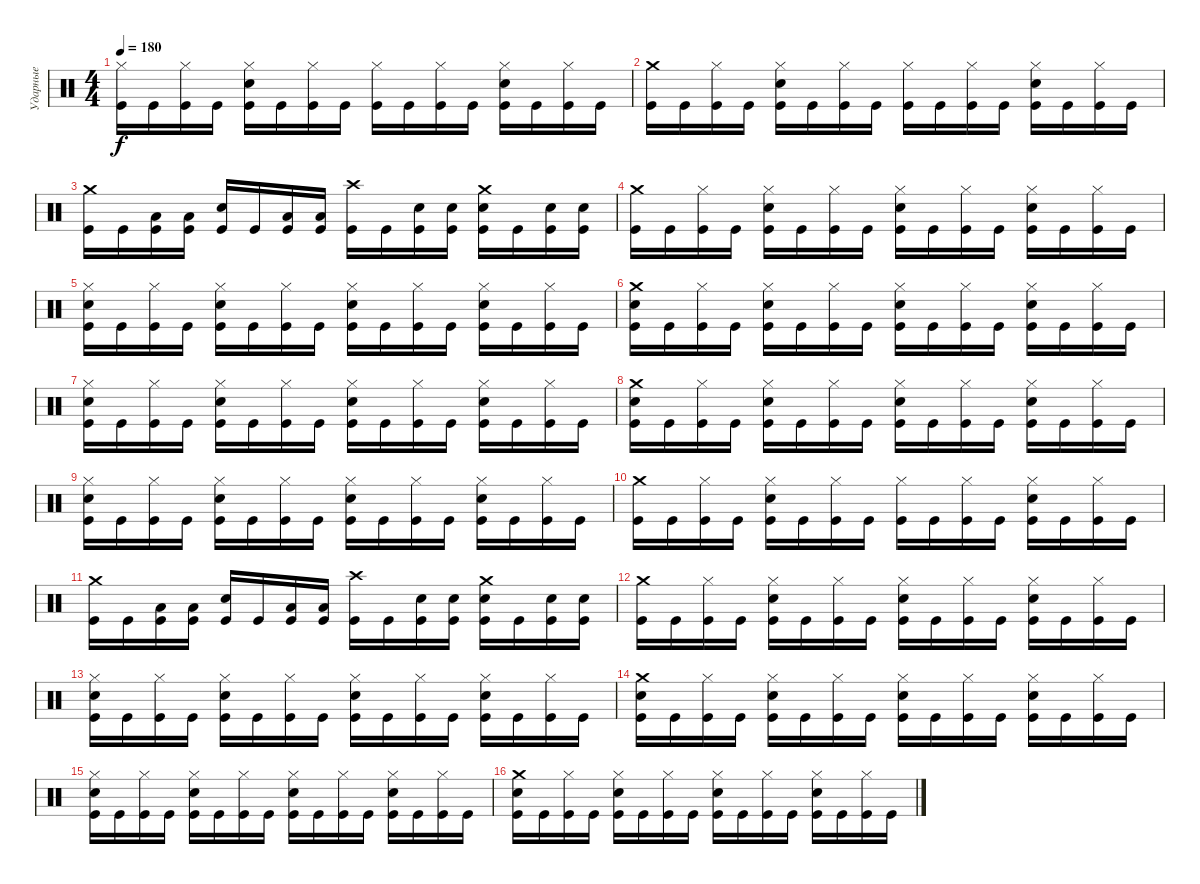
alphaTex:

\track ("Ударные" "Ударные") {instrument percussion}
\staff {score}
\articulation defaults
\ts (4 4)
\tempo 180
\clef neutral
\ks c
("Hi-Hat (closed)" "Kick (hit)").16{dy f} "Kick (hit)".16 ("Hi-Hat (closed)" "Kick (hit)").16 "Kick (hit)".16 ("Hi-Hat (closed)" "Electric Snare (hit)" "Kick (hit)").16 "Kick (hit)".16 ("Hi-Hat (closed)" "Kick (hit)").16 "Kick (hit)".16 ("Hi-Hat (closed)" "Kick (hit)").16 "Kick (hit)".16 ("Hi-Hat (closed)" "Kick (hit)").16 "Kick (hit)".16 ("Hi-Hat (closed)" "Electric Snare (hit)" "Kick (hit)").16 "Kick (hit)".16 ("Hi-Hat (closed)" "Kick (hit)").16 "Kick (hit)".16 |
("Crash medium (hit)" "Kick (hit)").16 "Kick (hit)".16 ("Hi-Hat (closed)" "Kick (hit)").16 "Kick (hit)".16 ("Hi-Hat (closed)" "Electric Snare (hit)" "Kick (hit)").16 "Kick (hit)".16 ("Hi-Hat (closed)" "Kick (hit)").16 "Kick (hit)".16 ("Hi-Hat (closed)" "Kick (hit)").16 "Kick (hit)".16 ("Hi-Hat (closed)" "Kick (hit)").16 "Kick (hit)".16 ("Hi-Hat (closed)" "Electric Snare (hit)" "Kick (hit)").16 "Kick (hit)".16 ("Hi-Hat (closed)" "Kick (hit)").16 "Kick (hit)".16 |
("Crash medium (hit)" "Kick (hit)").16 "Kick (hit)".16 ("Low Tom (hit)" "Kick (hit)").16 ("Low Tom (hit)" "Kick (hit)").16 ("Electric Snare (hit)" "Kick (hit)").16 "Kick (hit)".16 ("Low Tom (hit)" "Kick (hit)").16 ("Low Tom (hit)" "Kick (hit)").16 ("Crash high (hit)" "Kick (hit)").16 "Kick (hit)".16 ("Electric Snare (hit)" "Kick (hit)").16 ("Electric Snare (hit)" "Kick (hit)").16 ("Crash medium (hit)" "Electric Snare (hit)" "Kick (hit)").16 "Kick (hit)".16 ("Electric Snare (hit)" "Kick (hit)").16 ("Electric Snare (hit)" "Kick (hit)").16 |
("Crash medium (hit)" "Kick (hit)").16 "Kick (hit)".16 ("Hi-Hat (closed)" "Kick (hit)").16 "Kick (hit)".16 ("Hi-Hat (closed)" "Electric Snare (hit)" "Kick (hit)").16 "Kick (hit)".16 ("Hi-Hat (closed)" "Kick (hit)").16 "Kick (hit)".16 ("Hi-Hat (closed)" "Electric Snare (hit)" "Kick (hit)").16 "Kick (hit)".16 ("Hi-Hat (closed)" "Kick (hit)").16 "Kick (hit)".16 ("Hi-Hat (closed)" "Electric Snare (hit)" "Kick (hit)").16 "Kick (hit)".16 ("Hi-Hat (closed)" "Kick (hit)").16 "Kick (hit)".16 |
("Hi-Hat (closed)" "Electric Snare (hit)" "Kick (hit)").16 "Kick (hit)".16 ("Hi-Hat (closed)" "Kick (hit)").16 "Kick (hit)".16 ("Hi-Hat (closed)" "Electric Snare (hit)" "Kick (hit)").16 "Kick (hit)".16 ("Hi-Hat (closed)" "Kick (hit)").16 "Kick (hit)".16 ("Hi-Hat (closed)" "Electric Snare (hit)" "Kick (hit)").16 "Kick (hit)".16 ("Hi-Hat (closed)" "Kick (hit)").16 "Kick (hit)".16 ("Hi-Hat (closed)" "Electric Snare (hit)" "Kick (hit)").16 "Kick (hit)".16 ("Hi-Hat (closed)" "Kick (hit)").16 "Kick (hit)".16 |
("Crash medium (hit)" "Electric Snare (hit)" "Kick (hit)").16 "Kick (hit)".16 ("Hi-Hat (closed)" "Kick (hit)").16 "Kick (hit)".16 ("Hi-Hat (closed)" "Electric Snare (hit)" "Kick (hit)").16 "Kick (hit)".16 ("Hi-Hat (closed)" "Kick (hit)").16 "Kick (hit)".16 ("Hi-Hat (closed)" "Electric Snare (hit)" "Kick (hit)").16 "Kick (hit)".16 ("Hi-Hat (closed)" "Kick (hit)").16 "Kick (hit)".16 ("Hi-Hat (closed)" "Electric Snare (hit)" "Kick (hit)").16 "Kick (hit)".16 ("Hi-Hat (closed)" "Kick (hit)").16 "Kick (hit)".16 |
("Hi-Hat (closed)" "Electric Snare (hit)" "Kick (hit)").16 "Kick (hit)".16 ("Hi-Hat (closed)" "Kick (hit)").16 "Kick (hit)".16 ("Hi-Hat (closed)" "Electric Snare (hit)" "Kick (hit)").16 "Kick (hit)".16 ("Hi-Hat (closed)" "Kick (hit)").16 "Kick (hit)".16 ("Hi-Hat (closed)" "Electric Snare (hit)" "Kick (hit)").16 "Kick (hit)".16 ("Hi-Hat (closed)" "Kick (hit)").16 "Kick (hit)".16 ("Hi-Hat (closed)" "Electric Snare (hit)" "Kick (hit)").16 "Kick (hit)".16 ("Hi-Hat (closed)" "Kick (hit)").16 "Kick (hit)".16 |
("Crash medium (hit)" "Electric Snare (hit)" "Kick (hit)").16 "Kick (hit)".16 ("Hi-Hat (closed)" "Kick (hit)").16 "Kick (hit)".16 ("Hi-Hat (closed)" "Electric Snare (hit)" "Kick (hit)").16 "Kick (hit)".16 ("Hi-Hat (closed)" "Kick (hit)").16 "Kick (hit)".16 ("Hi-Hat (closed)" "Electric Snare (hit)" "Kick (hit)").16 "Kick (hit)".16 ("Hi-Hat (closed)" "Kick (hit)").16 "Kick (hit)".16 ("Hi-Hat (closed)" "Electric Snare (hit)" "Kick (hit)").16 "Kick (hit)".16 ("Hi-Hat (closed)" "Kick (hit)").16 "Kick (hit)".16 |
("Hi-Hat (closed)" "Electric Snare (hit)" "Kick (hit)").16 "Kick (hit)".16 ("Hi-Hat (closed)" "Kick (hit)").16 "Kick (hit)".16 ("Hi-Hat (closed)" "Electric Snare (hit)" "Kick (hit)").16 "Kick (hit)".16 ("Hi-Hat (closed)" "Kick (hit)").16 "Kick (hit)".16 ("Hi-Hat (closed)" "Electric Snare (hit)" "Kick (hit)").16 "Kick (hit)".16 ("Hi-Hat (closed)" "Kick (hit)").16 "Kick (hit)".16 ("Hi-Hat (closed)" "Electric Snare (hit)" "Kick (hit)").16 "Kick (hit)".16 ("Hi-Hat (closed)" "Kick (hit)").16 "Kick (hit)".16 |
("Crash medium (hit)" "Kick (hit)").16 "Kick (hit)".16 ("Hi-Hat (closed)" "Kick (hit)").16 "Kick (hit)".16 ("Hi-Hat (closed)" "Electric Snare (hit)" "Kick (hit)").16 "Kick (hit)".16 ("Hi-Hat (closed)" "Kick (hit)").16 "Kick (hit)".16 ("Hi-Hat (closed)" "Kick (hit)").16 "Kick (hit)".16 ("Hi-Hat (closed)" "Kick (hit)").16 "Kick (hit)".16 ("Hi-Hat (closed)" "Electric Snare (hit)" "Kick (hit)").16 "Kick (hit)".16 ("Hi-Hat (closed)" "Kick (hit)").16 "Kick (hit)".16 |
("Crash medium (hit)" "Kick (hit)").16 "Kick (hit)".16 ("Low Tom (hit)" "Kick (hit)").16 ("Low Tom (hit)" "Kick (hit)").16 ("Electric Snare (hit)" "Kick (hit)").16 "Kick (hit)".16 ("Low Tom (hit)" "Kick (hit)").16 ("Low Tom (hit)" "Kick (hit)").16 ("Crash high (hit)" "Kick (hit)").16 "Kick (hit)".16 ("Electric Snare (hit)" "Kick (hit)").16 ("Electric Snare (hit)" "Kick (hit)").16 ("Crash medium (hit)" "Electric Snare (hit)" "Kick (hit)").16 "Kick (hit)".16 ("Electric Snare (hit)" "Kick (hit)").16 ("Electric Snare (hit)" "Kick (hit)").16 |
("Crash medium (hit)" "Kick (hit)").16 "Kick (hit)".16 ("Hi-Hat (closed)" "Kick (hit)").16 "Kick (hit)".16 ("Hi-Hat (closed)" "Electric Snare (hit)" "Kick (hit)").16 "Kick (hit)".16 ("Hi-Hat (closed)" "Kick (hit)").16 "Kick (hit)".16 ("Hi-Hat (closed)" "Electric Snare (hit)" "Kick (hit)").16 "Kick (hit)".16 ("Hi-Hat (closed)" "Kick (hit)").16 "Kick (hit)".16 ("Hi-Hat (closed)" "Electric Snare (hit)" "Kick (hit)").16 "Kick (hit)".16 ("Hi-Hat (closed)" "Kick (hit)").16 "Kick (hit)".16 |
("Hi-Hat (closed)" "Electric Snare (hit)" "Kick (hit)").16 "Kick (hit)".16 ("Hi-Hat (closed)" "Kick (hit)").16 "Kick (hit)".16 ("Hi-Hat (closed)" "Electric Snare (hit)" "Kick (hit)").16 "Kick (hit)".16 ("Hi-Hat (closed)" "Kick (hit)").16 "Kick (hit)".16 ("Hi-Hat (closed)" "Electric Snare (hit)" "Kick (hit)").16 "Kick (hit)".16 ("Hi-Hat (closed)" "Kick (hit)").16 "Kick (hit)".16 ("Hi-Hat (closed)" "Electric Snare (hit)" "Kick (hit)").16 "Kick (hit)".16 ("Hi-Hat (closed)" "Kick (hit)").16 "Kick (hit)".16 |
("Crash medium (hit)" "Electric Snare (hit)" "Kick (hit)").16 "Kick (hit)".16 ("Hi-Hat (closed)" "Kick (hit)").16 "Kick (hit)".16 ("Hi-Hat (closed)" "Electric Snare (hit)" "Kick (hit)").16 "Kick (hit)".16 ("Hi-Hat (closed)" "Kick (hit)").16 "Kick (hit)".16 ("Hi-Hat (closed)" "Electric Snare (hit)" "Kick (hit)").16 "Kick (hit)".16 ("Hi-Hat (closed)" "Kick (hit)").16 "Kick (hit)".16 ("Hi-Hat (closed)" "Electric Snare (hit)" "Kick (hit)").16 "Kick (hit)".16 ("Hi-Hat (closed)" "Kick (hit)").16 "Kick (hit)".16 |
("Hi-Hat (closed)" "Electric Snare (hit)" "Kick (hit)").16 "Kick (hit)".16 ("Hi-Hat (closed)" "Kick (hit)").16 "Kick (hit)".16 ("Hi-Hat (closed)" "Electric Snare (hit)" "Kick (hit)").16 "Kick (hit)".16 ("Hi-Hat (closed)" "Kick (hit)").16 "Kick (hit)".16 ("Hi-Hat (closed)" "Electric Snare (hit)" "Kick (hit)").16 "Kick (hit)".16 ("Hi-Hat (closed)" "Kick (hit)").16 "Kick (hit)".16 ("Hi-Hat (closed)" "Electric Snare (hit)" "Kick (hit)").16 "Kick (hit)".16 ("Hi-Hat (closed)" "Kick (hit)").16 "Kick (hit)".16 |
("Crash medium (hit)" "Electric Snare (hit)" "Kick (hit)").16 "Kick (hit)".16 ("Hi-Hat (closed)" "Kick (hit)").16 "Kick (hit)".16 ("Hi-Hat (closed)" "Electric Snare (hit)" "Kick (hit)").16 "Kick (hit)".16 ("Hi-Hat (closed)" "Kick (hit)").16 "Kick (hit)".16 ("Hi-Hat (closed)" "Electric Snare (hit)" "Kick (hit)").16 "Kick (hit)".16 ("Hi-Hat (closed)" "Kick (hit)").16 "Kick (hit)".16 ("Hi-Hat (closed)" "Electric Snare (hit)" "Kick (hit)").16 "Kick (hit)".16 ("Hi-Hat (closed)" "Kick (hit)").16 "Kick (hit)".16
